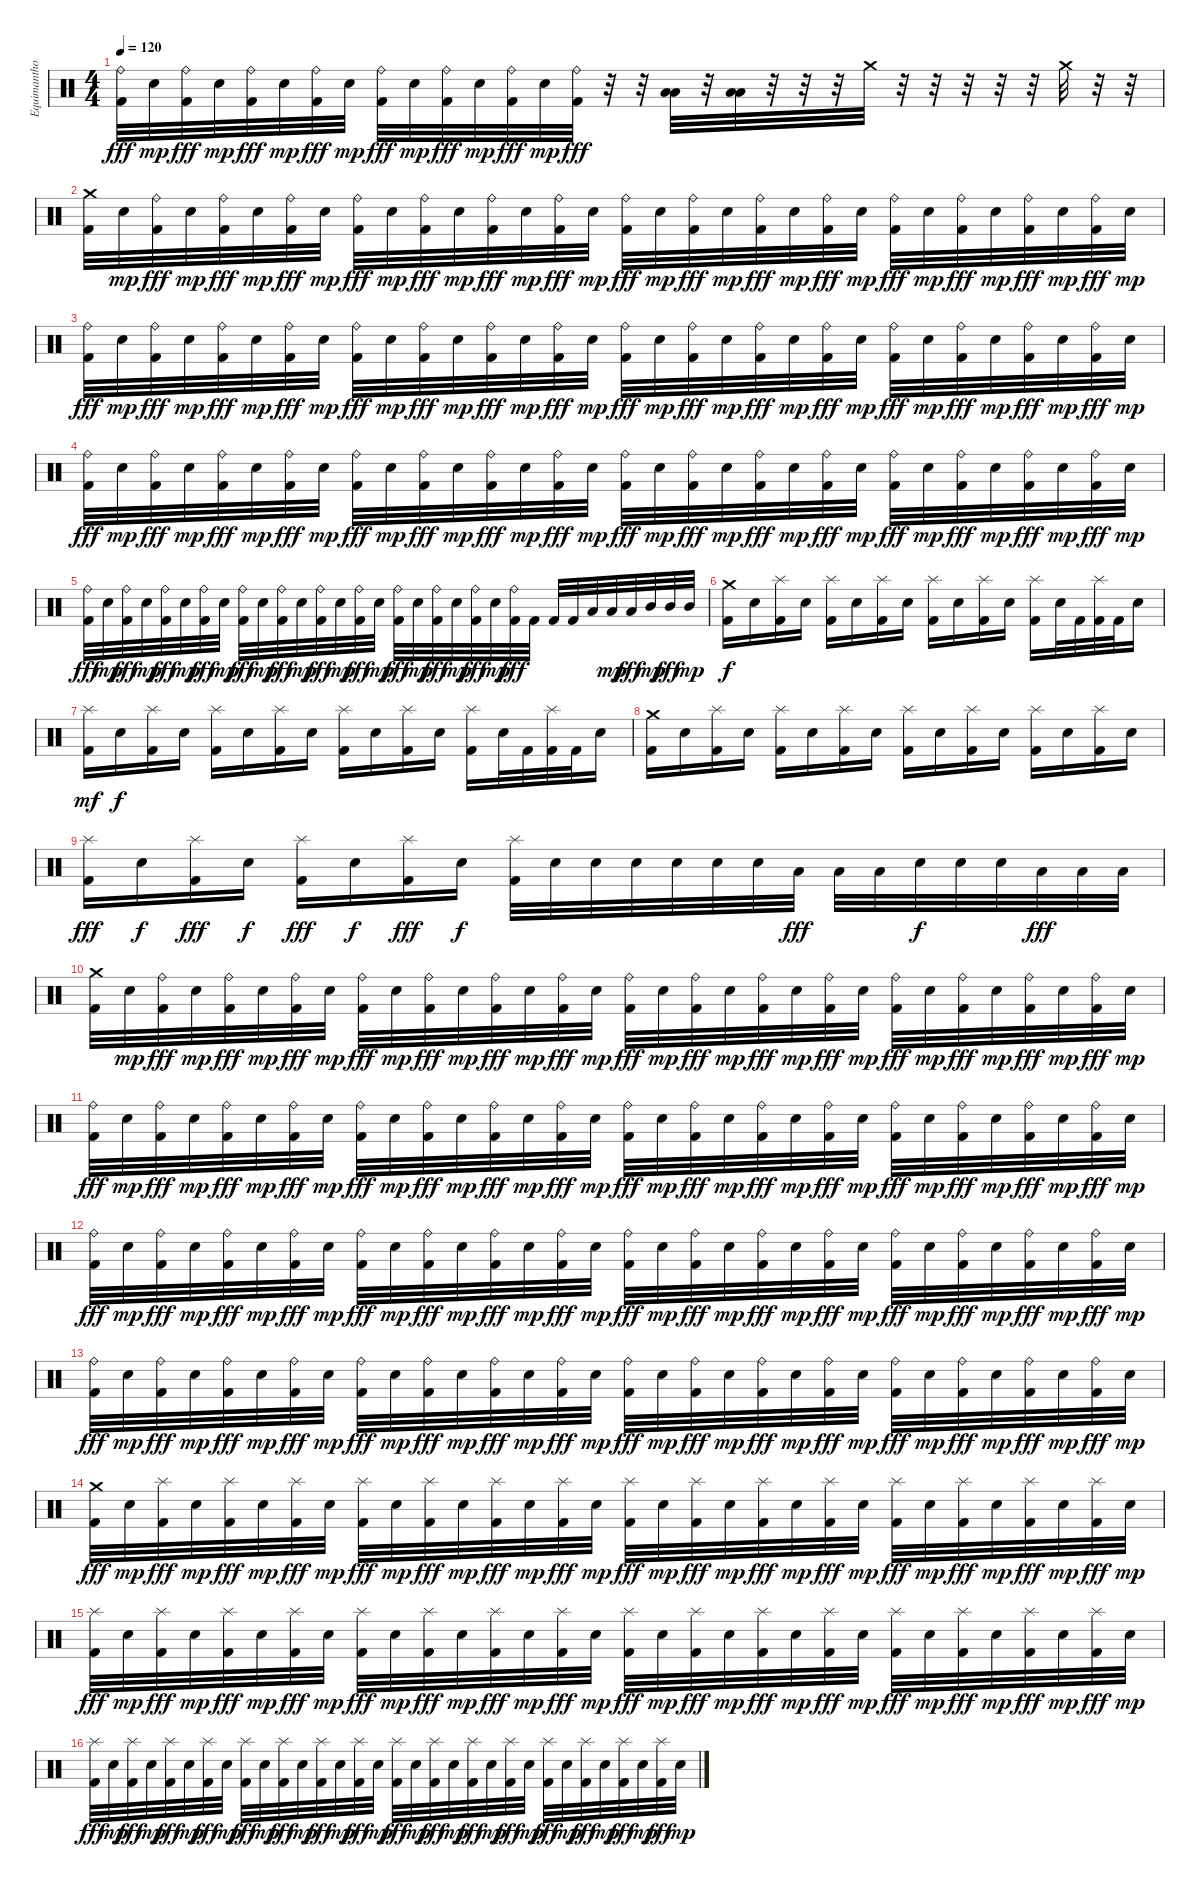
\track ("Equimanthorn" "Equimantho") {instrument percussion}
\staff {score}
\articulation defaults
\ts (4 4)
\tempo 120
\clef neutral
\ks c
("Ride (bell)" "Kick (hit) 2").32{dy fff} "Snare (hit) 2".32{dy mp} ("Ride (bell)" "Kick (hit) 2").32{dy fff} "Snare (hit) 2".32{dy mp} ("Ride (bell)" "Kick (hit) 2").32{dy fff} "Snare (hit) 2".32{dy mp} ("Ride (bell)" "Kick (hit) 2").32{dy fff} "Snare (hit) 2".32{dy mp} ("Ride (bell)" "Kick (hit) 2").32{dy fff} "Snare (hit) 2".32{dy mp} ("Ride (bell)" "Kick (hit) 2").32{dy fff} "Snare (hit) 2".32{dy mp} ("Ride (bell)" "Kick (hit) 2").32{dy fff} "Snare (hit) 2".32{dy mp} ("Ride (bell)" "Kick (hit) 2").32{dy fff} r.32 r.32 ("Low Tom (hit)" "Low Tom (hit)").32 r.32 ("Low Tom (hit)" "Low Tom (hit)").32 r.32 r.32 r.32 "Crash medium (hit)".32 r.32 r.32 r.32 r.32 r.32 "Crash medium (hit)".32 r.32 r.32 |
("Crash medium (hit)" "Kick (hit) 2").32 "Snare (hit) 2".32{dy mp} ("Ride (bell)" "Kick (hit) 2").32{dy fff} "Snare (hit) 2".32{dy mp} ("Ride (bell)" "Kick (hit) 2").32{dy fff} "Snare (hit) 2".32{dy mp} ("Ride (bell)" "Kick (hit) 2").32{dy fff} "Snare (hit) 2".32{dy mp} ("Ride (bell)" "Kick (hit) 2").32{dy fff} "Snare (hit) 2".32{dy mp} ("Ride (bell)" "Kick (hit) 2").32{dy fff} "Snare (hit) 2".32{dy mp} ("Ride (bell)" "Kick (hit) 2").32{dy fff} "Snare (hit) 2".32{dy mp} ("Ride (bell)" "Kick (hit) 2").32{dy fff} "Snare (hit) 2".32{dy mp} ("Ride (bell)" "Kick (hit) 2").32{dy fff} "Snare (hit) 2".32{dy mp} ("Ride (bell)" "Kick (hit) 2").32{dy fff} "Snare (hit) 2".32{dy mp} ("Ride (bell)" "Kick (hit) 2").32{dy fff} "Snare (hit) 2".32{dy mp} ("Ride (bell)" "Kick (hit) 2").32{dy fff} "Snare (hit) 2".32{dy mp} ("Ride (bell)" "Kick (hit) 2").32{dy fff} "Snare (hit) 2".32{dy mp} ("Ride (bell)" "Kick (hit) 2").32{dy fff} "Snare (hit) 2".32{dy mp} ("Ride (bell)" "Kick (hit) 2").32{dy fff} "Snare (hit) 2".32{dy mp} ("Ride (bell)" "Kick (hit) 2").32{dy fff} "Snare (hit) 2".32{dy mp} |
("Ride (bell)" "Kick (hit) 2").32{dy fff} "Snare (hit) 2".32{dy mp} ("Ride (bell)" "Kick (hit) 2").32{dy fff} "Snare (hit) 2".32{dy mp} ("Ride (bell)" "Kick (hit) 2").32{dy fff} "Snare (hit) 2".32{dy mp} ("Ride (bell)" "Kick (hit) 2").32{dy fff} "Snare (hit) 2".32{dy mp} ("Ride (bell)" "Kick (hit) 2").32{dy fff} "Snare (hit) 2".32{dy mp} ("Ride (bell)" "Kick (hit) 2").32{dy fff} "Snare (hit) 2".32{dy mp} ("Ride (bell)" "Kick (hit) 2").32{dy fff} "Snare (hit) 2".32{dy mp} ("Ride (bell)" "Kick (hit) 2").32{dy fff} "Snare (hit) 2".32{dy mp} ("Ride (bell)" "Kick (hit) 2").32{dy fff} "Snare (hit) 2".32{dy mp} ("Ride (bell)" "Kick (hit) 2").32{dy fff} "Snare (hit) 2".32{dy mp} ("Ride (bell)" "Kick (hit) 2").32{dy fff} "Snare (hit) 2".32{dy mp} ("Ride (bell)" "Kick (hit) 2").32{dy fff} "Snare (hit) 2".32{dy mp} ("Ride (bell)" "Kick (hit) 2").32{dy fff} "Snare (hit) 2".32{dy mp} ("Ride (bell)" "Kick (hit) 2").32{dy fff} "Snare (hit) 2".32{dy mp} ("Ride (bell)" "Kick (hit) 2").32{dy fff} "Snare (hit) 2".32{dy mp} ("Ride (bell)" "Kick (hit) 2").32{dy fff} "Snare (hit) 2".32{dy mp} |
("Ride (bell)" "Kick (hit) 2").32{dy fff} "Snare (hit) 2".32{dy mp} ("Ride (bell)" "Kick (hit) 2").32{dy fff} "Snare (hit) 2".32{dy mp} ("Ride (bell)" "Kick (hit) 2").32{dy fff} "Snare (hit) 2".32{dy mp} ("Ride (bell)" "Kick (hit) 2").32{dy fff} "Snare (hit) 2".32{dy mp} ("Ride (bell)" "Kick (hit) 2").32{dy fff} "Snare (hit) 2".32{dy mp} ("Ride (bell)" "Kick (hit) 2").32{dy fff} "Snare (hit) 2".32{dy mp} ("Ride (bell)" "Kick (hit) 2").32{dy fff} "Snare (hit) 2".32{dy mp} ("Ride (bell)" "Kick (hit) 2").32{dy fff} "Snare (hit) 2".32{dy mp} ("Ride (bell)" "Kick (hit) 2").32{dy fff} "Snare (hit) 2".32{dy mp} ("Ride (bell)" "Kick (hit) 2").32{dy fff} "Snare (hit) 2".32{dy mp} ("Ride (bell)" "Kick (hit) 2").32{dy fff} "Snare (hit) 2".32{dy mp} ("Ride (bell)" "Kick (hit) 2").32{dy fff} "Snare (hit) 2".32{dy mp} ("Ride (bell)" "Kick (hit) 2").32{dy fff} "Snare (hit) 2".32{dy mp} ("Ride (bell)" "Kick (hit) 2").32{dy fff} "Snare (hit) 2".32{dy mp} ("Ride (bell)" "Kick (hit) 2").32{dy fff} "Snare (hit) 2".32{dy mp} ("Ride (bell)" "Kick (hit) 2").32{dy fff} "Snare (hit) 2".32{dy mp} |
("Ride (bell)" "Kick (hit) 2").32{dy fff} "Snare (hit) 2".32{dy mp} ("Ride (bell)" "Kick (hit) 2").32{dy fff} "Snare (hit) 2".32{dy mp} ("Ride (bell)" "Kick (hit) 2").32{dy fff} "Snare (hit) 2".32{dy mp} ("Ride (bell)" "Kick (hit) 2").32{dy fff} "Snare (hit) 2".32{dy mp} ("Ride (bell)" "Kick (hit) 2").32{dy fff} "Snare (hit) 2".32{dy mp} ("Ride (bell)" "Kick (hit) 2").32{dy fff} "Snare (hit) 2".32{dy mp} ("Ride (bell)" "Kick (hit) 2").32{dy fff} "Snare (hit) 2".32{dy mp} ("Ride (bell)" "Kick (hit) 2").32{dy fff} "Snare (hit) 2".32{dy mp} ("Ride (bell)" "Kick (hit) 2").32{dy fff} "Snare (hit) 2".32{dy mp} ("Ride (bell)" "Kick (hit) 2").32{dy fff} "Snare (hit) 2".32{dy mp} ("Ride (bell)" "Kick (hit) 2").32{dy fff} "Snare (hit) 2".32{dy mp} ("Ride (bell)" "Kick (hit) 2").32{dy fff} "Kick (hit) 2".32 "Kick (hit) 2".32 "Kick (hit) 2".32 "Low Tom (hit)".32 "Low Tom (hit)".32{dy mp} "Low Tom (hit)".32{dy fff} "Mid Tom (hit)".32{dy mp} "Mid Tom (hit)".32{dy fff} "Mid Tom (hit)".32{dy mp} |
("Crash medium (hit)" "Kick (hit) 2").16{dy f} "Snare (hit) 2".16 ("Splash (hit)" "Kick (hit) 2").16 "Snare (hit) 2".16 ("Splash (hit)" "Kick (hit) 2").16 "Snare (hit) 2".16 ("Splash (hit)" "Kick (hit) 2").16 "Snare (hit) 2".16 ("Splash (hit)" "Kick (hit) 2").16 "Snare (hit) 2".16 ("Splash (hit)" "Kick (hit) 2").16 "Snare (hit) 2".16 ("Splash (hit)" "Kick (hit) 2").16 "Snare (hit) 2".32 "Kick (hit) 2".32 ("Splash (hit)" "Kick (hit) 2").32 "Kick (hit) 2".32 "Snare (hit) 2".16 |
("Splash (hit)" "Kick (hit) 2").16{dy mf} "Snare (hit) 2".16{dy f} ("Splash (hit)" "Kick (hit) 2").16 "Snare (hit) 2".16 ("Splash (hit)" "Kick (hit) 2").16 "Snare (hit) 2".16 ("Splash (hit)" "Kick (hit) 2").16 "Snare (hit) 2".16 ("Splash (hit)" "Kick (hit) 2").16 "Snare (hit) 2".16 ("Splash (hit)" "Kick (hit) 2").16 "Snare (hit) 2".16 ("Splash (hit)" "Kick (hit) 2").16 "Snare (hit) 2".32 "Kick (hit) 2".32 ("Splash (hit)" "Kick (hit) 2").32 "Kick (hit) 2".32 "Snare (hit) 2".16 |
("Crash medium (hit)" "Kick (hit) 2").16 "Snare (hit) 2".16 ("Splash (hit)" "Kick (hit) 2").16 "Snare (hit) 2".16 ("Splash (hit)" "Kick (hit) 2").16 "Snare (hit) 2".16 ("Splash (hit)" "Kick (hit) 2").16 "Snare (hit) 2".16 ("Splash (hit)" "Kick (hit) 2").16 "Snare (hit) 2".16 ("Splash (hit)" "Kick (hit) 2").16 "Snare (hit) 2".16 ("Splash (hit)" "Kick (hit) 2").16 "Snare (hit) 2".16 ("Splash (hit)" "Kick (hit) 2").16 "Snare (hit) 2".16 |
("Splash (hit)" "Kick (hit) 2").16{dy fff} "Snare (hit) 2".16{dy f} ("Splash (hit)" "Kick (hit) 2").16{dy fff} "Snare (hit) 2".16{dy f} ("Splash (hit)" "Kick (hit) 2").16{dy fff} "Snare (hit) 2".16{dy f} ("Splash (hit)" "Kick (hit) 2").16{dy fff} "Snare (hit) 2".16{dy f} ("Splash (hit)" "Kick (hit) 2").32 "Snare (hit) 2".32 "Snare (hit) 2".32 "Snare (hit) 2".32 "Snare (hit) 2".32 "Snare (hit) 2".32 "Snare (hit) 2".32 "Low Tom (hit)".32{dy fff} "Low Tom (hit)".32 "Low Tom (hit)".32 "Snare (hit) 2".32{dy f} "Snare (hit) 2".32 "Snare (hit) 2".32 "Low Tom (hit)".32{dy fff} "Low Tom (hit)".32 "Low Tom (hit)".32 |
("Crash medium (hit)" "Kick (hit) 2").32 "Snare (hit) 2".32{dy mp} ("Ride (bell)" "Kick (hit) 2").32{dy fff} "Snare (hit) 2".32{dy mp} ("Ride (bell)" "Kick (hit) 2").32{dy fff} "Snare (hit) 2".32{dy mp} ("Ride (bell)" "Kick (hit) 2").32{dy fff} "Snare (hit) 2".32{dy mp} ("Ride (bell)" "Kick (hit) 2").32{dy fff} "Snare (hit) 2".32{dy mp} ("Ride (bell)" "Kick (hit) 2").32{dy fff} "Snare (hit) 2".32{dy mp} ("Ride (bell)" "Kick (hit) 2").32{dy fff} "Snare (hit) 2".32{dy mp} ("Ride (bell)" "Kick (hit) 2").32{dy fff} "Snare (hit) 2".32{dy mp} ("Ride (bell)" "Kick (hit) 2").32{dy fff} "Snare (hit) 2".32{dy mp} ("Ride (bell)" "Kick (hit) 2").32{dy fff} "Snare (hit) 2".32{dy mp} ("Ride (bell)" "Kick (hit) 2").32{dy fff} "Snare (hit) 2".32{dy mp} ("Ride (bell)" "Kick (hit) 2").32{dy fff} "Snare (hit) 2".32{dy mp} ("Ride (bell)" "Kick (hit) 2").32{dy fff} "Snare (hit) 2".32{dy mp} ("Ride (bell)" "Kick (hit) 2").32{dy fff} "Snare (hit) 2".32{dy mp} ("Ride (bell)" "Kick (hit) 2").32{dy fff} "Snare (hit) 2".32{dy mp} ("Ride (bell)" "Kick (hit) 2").32{dy fff} "Snare (hit) 2".32{dy mp} |
("Ride (bell)" "Kick (hit) 2").32{dy fff} "Snare (hit) 2".32{dy mp} ("Ride (bell)" "Kick (hit) 2").32{dy fff} "Snare (hit) 2".32{dy mp} ("Ride (bell)" "Kick (hit) 2").32{dy fff} "Snare (hit) 2".32{dy mp} ("Ride (bell)" "Kick (hit) 2").32{dy fff} "Snare (hit) 2".32{dy mp} ("Ride (bell)" "Kick (hit) 2").32{dy fff} "Snare (hit) 2".32{dy mp} ("Ride (bell)" "Kick (hit) 2").32{dy fff} "Snare (hit) 2".32{dy mp} ("Ride (bell)" "Kick (hit) 2").32{dy fff} "Snare (hit) 2".32{dy mp} ("Ride (bell)" "Kick (hit) 2").32{dy fff} "Snare (hit) 2".32{dy mp} ("Ride (bell)" "Kick (hit) 2").32{dy fff} "Snare (hit) 2".32{dy mp} ("Ride (bell)" "Kick (hit) 2").32{dy fff} "Snare (hit) 2".32{dy mp} ("Ride (bell)" "Kick (hit) 2").32{dy fff} "Snare (hit) 2".32{dy mp} ("Ride (bell)" "Kick (hit) 2").32{dy fff} "Snare (hit) 2".32{dy mp} ("Ride (bell)" "Kick (hit) 2").32{dy fff} "Snare (hit) 2".32{dy mp} ("Ride (bell)" "Kick (hit) 2").32{dy fff} "Snare (hit) 2".32{dy mp} ("Ride (bell)" "Kick (hit) 2").32{dy fff} "Snare (hit) 2".32{dy mp} ("Ride (bell)" "Kick (hit) 2").32{dy fff} "Snare (hit) 2".32{dy mp} |
("Ride (bell)" "Kick (hit) 2").32{dy fff} "Snare (hit) 2".32{dy mp} ("Ride (bell)" "Kick (hit) 2").32{dy fff} "Snare (hit) 2".32{dy mp} ("Ride (bell)" "Kick (hit) 2").32{dy fff} "Snare (hit) 2".32{dy mp} ("Ride (bell)" "Kick (hit) 2").32{dy fff} "Snare (hit) 2".32{dy mp} ("Ride (bell)" "Kick (hit) 2").32{dy fff} "Snare (hit) 2".32{dy mp} ("Ride (bell)" "Kick (hit) 2").32{dy fff} "Snare (hit) 2".32{dy mp} ("Ride (bell)" "Kick (hit) 2").32{dy fff} "Snare (hit) 2".32{dy mp} ("Ride (bell)" "Kick (hit) 2").32{dy fff} "Snare (hit) 2".32{dy mp} ("Ride (bell)" "Kick (hit) 2").32{dy fff} "Snare (hit) 2".32{dy mp} ("Ride (bell)" "Kick (hit) 2").32{dy fff} "Snare (hit) 2".32{dy mp} ("Ride (bell)" "Kick (hit) 2").32{dy fff} "Snare (hit) 2".32{dy mp} ("Ride (bell)" "Kick (hit) 2").32{dy fff} "Snare (hit) 2".32{dy mp} ("Ride (bell)" "Kick (hit) 2").32{dy fff} "Snare (hit) 2".32{dy mp} ("Ride (bell)" "Kick (hit) 2").32{dy fff} "Snare (hit) 2".32{dy mp} ("Ride (bell)" "Kick (hit) 2").32{dy fff} "Snare (hit) 2".32{dy mp} ("Ride (bell)" "Kick (hit) 2").32{dy fff} "Snare (hit) 2".32{dy mp} |
("Ride (bell)" "Kick (hit) 2").32{dy fff} "Snare (hit) 2".32{dy mp} ("Ride (bell)" "Kick (hit) 2").32{dy fff} "Snare (hit) 2".32{dy mp} ("Ride (bell)" "Kick (hit) 2").32{dy fff} "Snare (hit) 2".32{dy mp} ("Ride (bell)" "Kick (hit) 2").32{dy fff} "Snare (hit) 2".32{dy mp} ("Ride (bell)" "Kick (hit) 2").32{dy fff} "Snare (hit) 2".32{dy mp} ("Ride (bell)" "Kick (hit) 2").32{dy fff} "Snare (hit) 2".32{dy mp} ("Ride (bell)" "Kick (hit) 2").32{dy fff} "Snare (hit) 2".32{dy mp} ("Ride (bell)" "Kick (hit) 2").32{dy fff} "Snare (hit) 2".32{dy mp} ("Ride (bell)" "Kick (hit) 2").32{dy fff} "Snare (hit) 2".32{dy mp} ("Ride (bell)" "Kick (hit) 2").32{dy fff} "Snare (hit) 2".32{dy mp} ("Ride (bell)" "Kick (hit) 2").32{dy fff} "Snare (hit) 2".32{dy mp} ("Ride (bell)" "Kick (hit) 2").32{dy fff} "Snare (hit) 2".32{dy mp} ("Ride (bell)" "Kick (hit) 2").32{dy fff} "Snare (hit) 2".32{dy mp} ("Ride (bell)" "Kick (hit) 2").32{dy fff} "Snare (hit) 2".32{dy mp} ("Ride (bell)" "Kick (hit) 2").32{dy fff} "Snare (hit) 2".32{dy mp} ("Ride (bell)" "Kick (hit) 2").32{dy fff} "Snare (hit) 2".32{dy mp} |
("Crash medium (hit)" "Kick (hit) 2").32{dy fff} "Snare (hit) 2".32{dy mp} ("Splash (hit)" "Kick (hit) 2").32{dy fff} "Snare (hit) 2".32{dy mp} ("Splash (hit)" "Kick (hit) 2").32{dy fff} "Snare (hit) 2".32{dy mp} ("Splash (hit)" "Kick (hit) 2").32{dy fff} "Snare (hit) 2".32{dy mp} ("Splash (hit)" "Kick (hit) 2").32{dy fff} "Snare (hit) 2".32{dy mp} ("Splash (hit)" "Kick (hit) 2").32{dy fff} "Snare (hit) 2".32{dy mp} ("Splash (hit)" "Kick (hit) 2").32{dy fff} "Snare (hit) 2".32{dy mp} ("Splash (hit)" "Kick (hit) 2").32{dy fff} "Snare (hit) 2".32{dy mp} ("Splash (hit)" "Kick (hit) 2").32{dy fff} "Snare (hit) 2".32{dy mp} ("Splash (hit)" "Kick (hit) 2").32{dy fff} "Snare (hit) 2".32{dy mp} ("Splash (hit)" "Kick (hit) 2").32{dy fff} "Snare (hit) 2".32{dy mp} ("Splash (hit)" "Kick (hit) 2").32{dy fff} "Snare (hit) 2".32{dy mp} ("Splash (hit)" "Kick (hit) 2").32{dy fff} "Snare (hit) 2".32{dy mp} ("Splash (hit)" "Kick (hit) 2").32{dy fff} "Snare (hit) 2".32{dy mp} ("Splash (hit)" "Kick (hit) 2").32{dy fff} "Snare (hit) 2".32{dy mp} ("Splash (hit)" "Kick (hit) 2").32{dy fff} "Snare (hit) 2".32{dy mp} |
("Splash (hit)" "Kick (hit) 2").32{dy fff} "Snare (hit) 2".32{dy mp} ("Splash (hit)" "Kick (hit) 2").32{dy fff} "Snare (hit) 2".32{dy mp} ("Splash (hit)" "Kick (hit) 2").32{dy fff} "Snare (hit) 2".32{dy mp} ("Splash (hit)" "Kick (hit) 2").32{dy fff} "Snare (hit) 2".32{dy mp} ("Splash (hit)" "Kick (hit) 2").32{dy fff} "Snare (hit) 2".32{dy mp} ("Splash (hit)" "Kick (hit) 2").32{dy fff} "Snare (hit) 2".32{dy mp} ("Splash (hit)" "Kick (hit) 2").32{dy fff} "Snare (hit) 2".32{dy mp} ("Splash (hit)" "Kick (hit) 2").32{dy fff} "Snare (hit) 2".32{dy mp} ("Splash (hit)" "Kick (hit) 2").32{dy fff} "Snare (hit) 2".32{dy mp} ("Splash (hit)" "Kick (hit) 2").32{dy fff} "Snare (hit) 2".32{dy mp} ("Splash (hit)" "Kick (hit) 2").32{dy fff} "Snare (hit) 2".32{dy mp} ("Splash (hit)" "Kick (hit) 2").32{dy fff} "Snare (hit) 2".32{dy mp} ("Splash (hit)" "Kick (hit) 2").32{dy fff} "Snare (hit) 2".32{dy mp} ("Splash (hit)" "Kick (hit) 2").32{dy fff} "Snare (hit) 2".32{dy mp} ("Splash (hit)" "Kick (hit) 2").32{dy fff} "Snare (hit) 2".32{dy mp} ("Splash (hit)" "Kick (hit) 2").32{dy fff} "Snare (hit) 2".32{dy mp} |
("Splash (hit)" "Kick (hit) 2").32{dy fff} "Snare (hit) 2".32{dy mp} ("Splash (hit)" "Kick (hit) 2").32{dy fff} "Snare (hit) 2".32{dy mp} ("Splash (hit)" "Kick (hit) 2").32{dy fff} "Snare (hit) 2".32{dy mp} ("Splash (hit)" "Kick (hit) 2").32{dy fff} "Snare (hit) 2".32{dy mp} ("Splash (hit)" "Kick (hit) 2").32{dy fff} "Snare (hit) 2".32{dy mp} ("Splash (hit)" "Kick (hit) 2").32{dy fff} "Snare (hit) 2".32{dy mp} ("Splash (hit)" "Kick (hit) 2").32{dy fff} "Snare (hit) 2".32{dy mp} ("Splash (hit)" "Kick (hit) 2").32{dy fff} "Snare (hit) 2".32{dy mp} ("Splash (hit)" "Kick (hit) 2").32{dy fff} "Snare (hit) 2".32{dy mp} ("Splash (hit)" "Kick (hit) 2").32{dy fff} "Snare (hit) 2".32{dy mp} ("Splash (hit)" "Kick (hit) 2").32{dy fff} "Snare (hit) 2".32{dy mp} ("Splash (hit)" "Kick (hit) 2").32{dy fff} "Snare (hit) 2".32{dy mp} ("Splash (hit)" "Kick (hit) 2").32{dy fff} "Snare (hit) 2".32{dy mp} ("Splash (hit)" "Kick (hit) 2").32{dy fff} "Snare (hit) 2".32{dy mp} ("Splash (hit)" "Kick (hit) 2").32{dy fff} "Snare (hit) 2".32{dy mp} ("Splash (hit)" "Kick (hit) 2").32{dy fff} "Snare (hit) 2".32{dy mp}
